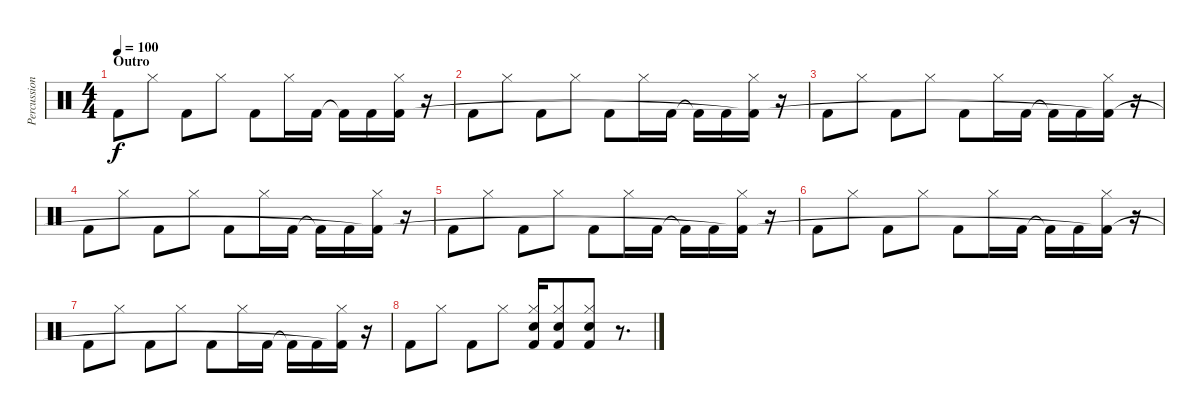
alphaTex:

\track ("Percussion" "Percussion") {instrument percussion}
\staff {score}
\articulation defaults
\ts (4 4)
\section ("" "Outro")
\tempo 100
\clef neutral
\ks c "Kick (hit) 2".8{dy f} "Hi-Hat (closed)".8 "Kick (hit) 2".8 "Hi-Hat (closed)".8 "Kick (hit) 2".8 "Hi-Hat (closed)".16 "Kick (hit) 2".16 "Kick (hit) 2"{t}.16 "Kick (hit) 2".16
("Hi-Hat (closed)" "Kick (hit) 2"{t}).16 r.16 |
"Kick (hit) 2".8 "Hi-Hat (closed)".8 "Kick (hit) 2".8 "Hi-Hat (closed)".8 "Kick (hit) 2".8 "Hi-Hat (closed)".16 "Kick (hit) 2".16 "Kick (hit) 2"{t}.16 "Kick (hit) 2".16 ("Hi-Hat (closed)" "Kick (hit) 2"{t}).16 r.16 |
"Kick (hit) 2".8 "Hi-Hat (closed)".8 "Kick (hit) 2".8 "Hi-Hat (closed)".8 "Kick (hit) 2".8 "Hi-Hat (closed)".16 "Kick (hit) 2".16 "Kick (hit) 2"{t}.16 "Kick (hit) 2".16 ("Hi-Hat (closed)" "Kick (hit) 2"{t}).16 r.16 |
"Kick (hit) 2".8 "Hi-Hat (closed)".8 "Kick (hit) 2".8 "Hi-Hat (closed)".8 "Kick (hit) 2".8 "Hi-Hat (closed)".16 "Kick (hit) 2".16 "Kick (hit) 2"{t}.16 "Kick (hit) 2".16 ("Hi-Hat (closed)" "Kick (hit) 2"{t}).16 r.16 |
"Kick (hit) 2".8 "Hi-Hat (closed)".8 "Kick (hit) 2".8 "Hi-Hat (closed)".8 "Kick (hit) 2".8 "Hi-Hat (closed)".16 "Kick (hit) 2".16 "Kick (hit) 2"{t}.16 "Kick (hit) 2".16 ("Hi-Hat (closed)" "Kick (hit) 2"{t}).16 r.16 |
"Kick (hit) 2".8 "Hi-Hat (closed)".8 "Kick (hit) 2".8 "Hi-Hat (closed)".8 "Kick (hit) 2".8 "Hi-Hat (closed)".16 "Kick (hit) 2".16 "Kick (hit) 2"{t}.16 "Kick (hit) 2".16 ("Hi-Hat (closed)" "Kick (hit) 2"{t}).16 r.16 |
"Kick (hit) 2".8 "Hi-Hat (closed)".8 "Kick (hit) 2".8 "Hi-Hat (closed)".8 "Kick (hit) 2".8 "Hi-Hat (closed)".16 "Kick (hit) 2".16 "Kick (hit) 2"{t}.16 "Kick (hit) 2".16 ("Hi-Hat (closed)" "Kick (hit) 2"{t}).16 r.16 |
"Kick (hit) 2".8 "Hi-Hat (closed)".8 "Kick (hit) 2".8 "Hi-Hat (closed)".8 ("Hi-Hat (closed)" "Electric Snare (hit)" "Kick (hit) 2").16 ("Hi-Hat (closed)" "Electric Snare (hit)" "Kick (hit) 2").8 ("Hi-Hat (closed)" "Electric Snare (hit)" "Kick (hit) 2").8 r.8{d}
